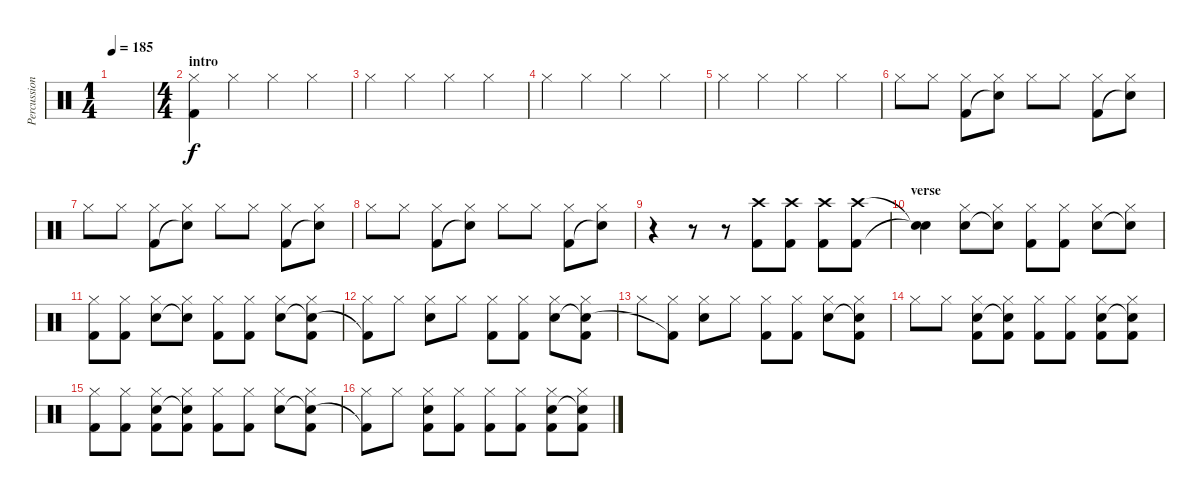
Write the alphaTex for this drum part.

\track ("Percussion" "Percussion") {instrument percussion}
\staff {score}
\articulation defaults
\ts (1 4)
\tempo 185
\clef neutral
\ks c
|
\ts (4 4)
\section ("" "intro")
("Hi-Hat (closed)" "Kick (hit) 2").4 "Hi-Hat (closed)".4 "Hi-Hat (closed)".4 "Hi-Hat (closed)".4 |
"Hi-Hat (closed)".4 "Hi-Hat (closed)".4 "Hi-Hat (closed)".4 "Hi-Hat (closed)".4 |
"Hi-Hat (closed)".4 "Hi-Hat (closed)".4 "Hi-Hat (closed)".4 "Hi-Hat (closed)".4 |
"Hi-Hat (closed)".4 "Hi-Hat (closed)".4 "Hi-Hat (closed)".4 "Hi-Hat (closed)".4 |
"Hi-Hat (closed)".8 "Hi-Hat (closed)".8 ("Hi-Hat (closed)" "Kick (hit) 2").8 ("Hi-Hat (closed)" "Snare (hit)"{t}).8 "Hi-Hat (closed)".8 "Hi-Hat (closed)".8 ("Hi-Hat (closed)" "Kick (hit) 2").8 ("Hi-Hat (closed)" "Snare (hit)"{t}).8 |
"Hi-Hat (closed)".8 "Hi-Hat (closed)".8 ("Hi-Hat (closed)" "Kick (hit) 2").8 ("Hi-Hat (closed)" "Snare (hit)"{t}).8 "Hi-Hat (closed)".8 "Hi-Hat (closed)".8 ("Hi-Hat (closed)" "Kick (hit) 2").8 ("Hi-Hat (closed)" "Snare (hit)"{t}).8 |
"Hi-Hat (closed)".8 "Hi-Hat (closed)".8 ("Hi-Hat (closed)" "Kick (hit) 2").8 ("Hi-Hat (closed)" "Snare (hit)"{t}).8 "Hi-Hat (closed)".8 "Hi-Hat (closed)".8 ("Hi-Hat (closed)" "Kick (hit) 2").8 ("Hi-Hat (closed)" "Snare (hit)"{t}).8 |
r.4 r.8 r.8 ("Crash high (hit)" "Kick (hit) 2").8 ("Crash high (hit)" "Kick (hit) 2").8 ("Crash high (hit)" "Kick (hit) 2").8 ("Crash high (hit)" "Kick (hit) 2").8 |
\section ("" "verse")
("Snare (hit)"{t} "Snare (hit)"{t}).4 ("Hi-Hat (closed)" "Snare (hit) 2").8 ("Hi-Hat (closed)" "Snare (hit) 2"{t}).8 ("Hi-Hat (closed)" "Kick (hit) 2").8 ("Hi-Hat (closed)" "Kick (hit) 2").8 ("Hi-Hat (closed)" "Snare (hit) 2").8 ("Hi-Hat (closed)" "Snare (hit)"{t}).8 |
("Hi-Hat (closed)" "Kick (hit) 2").8 ("Hi-Hat (closed)" "Kick (hit) 2").8 ("Hi-Hat (closed)" "Snare (hit) 2").8 ("Hi-Hat (closed)" "Snare (hit)"{t}).8 ("Hi-Hat (closed)" "Kick (hit) 2").8 ("Hi-Hat (closed)" "Kick (hit) 2").8 ("Hi-Hat (closed)" "Snare (hit) 2").8 ("Hi-Hat (closed)" "Snare (hit)"{t} "Kick (hit) 2").8 |
("Hi-Hat (closed)" "Kick (hit) 2"{t}).8 "Hi-Hat (closed)".8 ("Hi-Hat (closed)" "Snare (hit) 2").8 "Hi-Hat (closed)".8 ("Hi-Hat (closed)" "Kick (hit) 2").8 ("Hi-Hat (closed)" "Kick (hit) 2").8 ("Hi-Hat (closed)" "Snare (hit) 2").8 ("Hi-Hat (closed)" "Snare (hit)"{t} "Kick (hit) 2").8 |
"Hi-Hat (closed)".8 ("Hi-Hat (closed)" "Kick (hit) 2"{t}).8 ("Hi-Hat (closed)" "Snare (hit) 2").8 "Hi-Hat (closed)".8 ("Hi-Hat (closed)" "Kick (hit) 2").8 ("Hi-Hat (closed)" "Kick (hit) 2").8 ("Hi-Hat (closed)" "Snare (hit) 2").8 ("Hi-Hat (closed)" "Snare (hit)"{t} "Kick (hit) 2").8 |
"Hi-Hat (closed)".8 "Hi-Hat (closed)".8 ("Hi-Hat (closed)" "Snare (hit) 2" "Kick (hit) 2").8 ("Hi-Hat (closed)" "Snare (hit)"{t} "Kick (hit) 2").8 ("Hi-Hat (closed)" "Kick (hit) 2").8 ("Hi-Hat (closed)" "Kick (hit) 2").8 ("Hi-Hat (closed)" "Snare (hit) 2" "Kick (hit) 2").8 ("Hi-Hat (closed)" "Snare (hit)"{t} "Kick (hit) 2").8 |
("Hi-Hat (closed)" "Kick (hit) 2").8 ("Hi-Hat (closed)" "Kick (hit) 2").8 ("Hi-Hat (closed)" "Snare (hit) 2" "Kick (hit) 2").8 ("Hi-Hat (closed)" "Snare (hit)"{t} "Kick (hit) 2").8 ("Hi-Hat (closed)" "Kick (hit) 2").8 ("Hi-Hat (closed)" "Kick (hit) 2").8 ("Hi-Hat (closed)" "Snare (hit) 2").8 ("Hi-Hat (closed)" "Snare (hit)"{t} "Kick (hit) 2").8 |
("Hi-Hat (closed)" "Kick (hit) 2"{t}).8 "Hi-Hat (closed)".8 ("Hi-Hat (closed)" "Snare (hit) 2" "Kick (hit) 2").8 ("Hi-Hat (closed)" "Kick (hit) 2").8 ("Hi-Hat (closed)" "Kick (hit) 2").8 ("Hi-Hat (closed)" "Kick (hit) 2").8 ("Hi-Hat (closed)" "Snare (hit) 2" "Kick (hit) 2").8 ("Hi-Hat (closed)" "Snare (hit)"{t} "Kick (hit) 2").8
